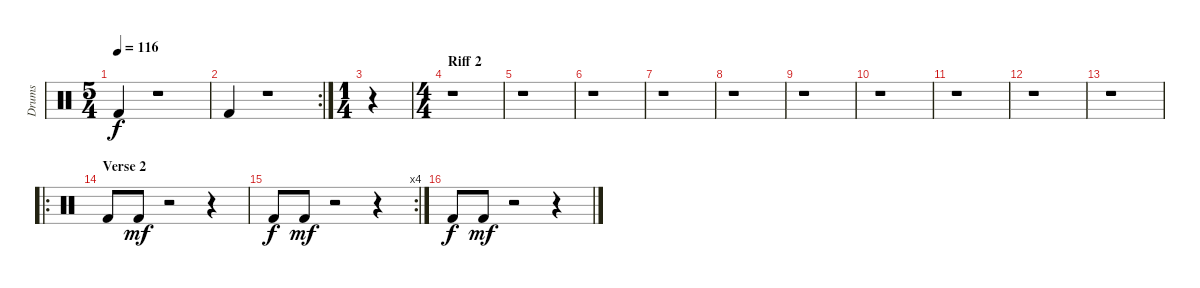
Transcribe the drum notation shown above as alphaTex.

\track ("Drums" "Drums") {instrument percussion}
\staff {score}
\articulation defaults
\ts (5 4)
\tempo 116
\clef neutral
\ks c "Kick (hit) 2".4{dy f}
r.1 |
\rc 2 "Kick (hit) 2".4
r.1 |
\ts (1 4)
r.4 |
\ts (4 4)
\section ("" "Riff 2")
r.1 |
r.1 |
r.1 |
r.1 |
r.1 |
r.1 |
r.1 |
r.1 |
r.1 |
r.1 |
\ro
\section ("" "Verse 2")
"Kick (hit) 2".8 "Kick (hit) 2".8{dy mf} r.2 r.4 |
\rc 4 "Kick (hit) 2".8{dy f} "Kick (hit) 2".8{dy mf}
r.2 r.4 |
"Kick (hit) 2".8{dy f} "Kick (hit) 2".8{dy mf} r.2 r.4
